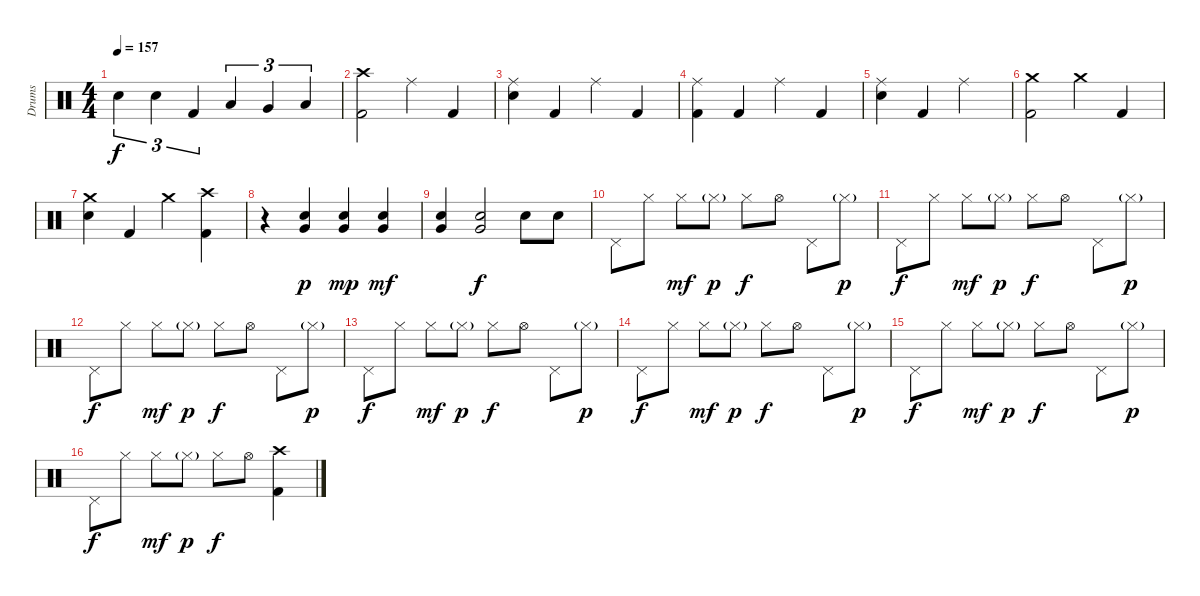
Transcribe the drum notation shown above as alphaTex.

\track ("Drums" "Drums") {instrument percussion}
\staff {score}
\articulation defaults
\ts (4 4)
\tempo 157
\clef neutral
\ks c "Electric Snare (hit)".4{tu (3 2) dy f} "Electric Snare (hit)".4{tu (3 2)} "Kick (hit) 2".4{tu (3 2)} "Low Tom (hit)".4{tu (3 2)} "Very Low Tom (hit)".4{tu (3 2)} "Low Floor Tom (hit)".4{tu (3 2)}
|
("Crash high (hit)" "Kick (hit) 2").2 "Ride (middle)".4 "Kick (hit) 2".4 |
("Ride (middle)" "Electric Snare (hit)").4 "Kick (hit) 2".4 "Ride (middle)".4 "Kick (hit) 2".4 |
("Ride (middle)" "Kick (hit) 2").4 "Kick (hit) 2".4 "Ride (middle)".4 "Kick (hit) 2".4 |
("Ride (middle)" "Electric Snare (hit)").4 "Kick (hit) 2".4 "Ride (middle)".2 |
("Crash medium (hit)" "Kick (hit) 2").2 "Crash medium (hit)".4 "Kick (hit) 2".4 |
("Crash medium (hit)" "Electric Snare (hit)").4 "Kick (hit) 2".4 "Crash medium (hit)".4 ("Crash high (hit)" "Kick (hit) 2").4 |
r.4 ("Electric Snare (hit)" "Very Low Tom (hit)").4{dy p} ("Electric Snare (hit)" "Very Low Tom (hit)").4{dy mp} ("Electric Snare (hit)" "Very Low Tom (hit)").4{dy mf} |
("Electric Snare (hit)" "Very Low Tom (hit)").4 ("Electric Snare (hit)" "Very Low Tom (hit)").2{dy f} "Electric Snare (hit)".8 "Electric Snare (hit)".8 |
"Pedal Hi-Hat (hit)".8{volume 5} "Hi-Hat (closed)".8 "Hi-Hat (closed)".8{dy mf} "Hi-Hat (closed)"{g}.8{dy p} "Hi-Hat (closed)".8{dy f} "Hi-Hat (open)".8 "Pedal Hi-Hat (hit)".8 "Hi-Hat (closed)"{g}.8{dy p} |
"Pedal Hi-Hat (hit)".8{dy f} "Hi-Hat (closed)".8 "Hi-Hat (closed)".8{dy mf} "Hi-Hat (closed)"{g}.8{dy p} "Hi-Hat (closed)".8{dy f} "Hi-Hat (open)".8 "Pedal Hi-Hat (hit)".8 "Hi-Hat (closed)"{g}.8{dy p} |
"Pedal Hi-Hat (hit)".8{dy f} "Hi-Hat (closed)".8 "Hi-Hat (closed)".8{dy mf} "Hi-Hat (closed)"{g}.8{dy p} "Hi-Hat (closed)".8{dy f} "Hi-Hat (open)".8 "Pedal Hi-Hat (hit)".8 "Hi-Hat (closed)"{g}.8{dy p} |
"Pedal Hi-Hat (hit)".8{dy f} "Hi-Hat (closed)".8 "Hi-Hat (closed)".8{dy mf} "Hi-Hat (closed)"{g}.8{dy p} "Hi-Hat (closed)".8{dy f} "Hi-Hat (open)".8 "Pedal Hi-Hat (hit)".8 "Hi-Hat (closed)"{g}.8{dy p} |
"Pedal Hi-Hat (hit)".8{dy f} "Hi-Hat (closed)".8 "Hi-Hat (closed)".8{dy mf} "Hi-Hat (closed)"{g}.8{dy p} "Hi-Hat (closed)".8{dy f} "Hi-Hat (open)".8 "Pedal Hi-Hat (hit)".8 "Hi-Hat (closed)"{g}.8{dy p} |
"Pedal Hi-Hat (hit)".8{dy f} "Hi-Hat (closed)".8 "Hi-Hat (closed)".8{dy mf} "Hi-Hat (closed)"{g}.8{dy p} "Hi-Hat (closed)".8{dy f} "Hi-Hat (open)".8 "Pedal Hi-Hat (hit)".8 "Hi-Hat (closed)"{g}.8{dy p} |
"Pedal Hi-Hat (hit)".8{dy f} "Hi-Hat (closed)".8 "Hi-Hat (closed)".8{dy mf} "Hi-Hat (closed)"{g}.8{dy p} "Hi-Hat (closed)".8{dy f} "Hi-Hat (open)".8 ("Crash high (hit)" "Kick (hit) 2").4{volume 15}
